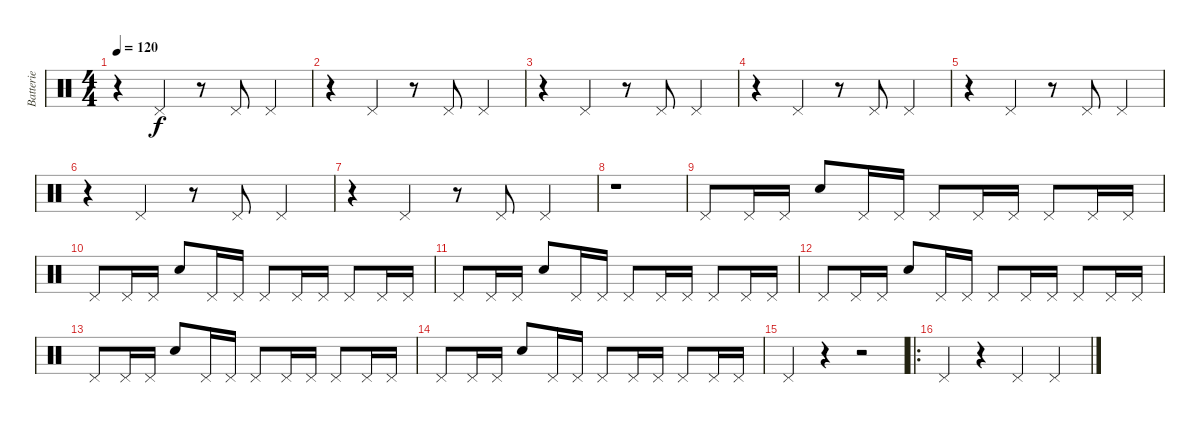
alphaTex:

\track ("Batterie" "Batterie") {instrument percussion}
\staff {score}
\articulation defaults
\ts (4 4)
\tempo 120
\clef neutral
\ks c
r.4{dy f} "Pedal Hi-Hat (hit)".4 r.8 "Pedal Hi-Hat (hit)".8 "Pedal Hi-Hat (hit)".4 |
r.4 "Pedal Hi-Hat (hit)".4 r.8 "Pedal Hi-Hat (hit)".8 "Pedal Hi-Hat (hit)".4 |
r.4 "Pedal Hi-Hat (hit)".4 r.8 "Pedal Hi-Hat (hit)".8 "Pedal Hi-Hat (hit)".4 |
r.4 "Pedal Hi-Hat (hit)".4 r.8 "Pedal Hi-Hat (hit)".8 "Pedal Hi-Hat (hit)".4 |
r.4 "Pedal Hi-Hat (hit)".4 r.8 "Pedal Hi-Hat (hit)".8 "Pedal Hi-Hat (hit)".4 |
r.4 "Pedal Hi-Hat (hit)".4 r.8 "Pedal Hi-Hat (hit)".8 "Pedal Hi-Hat (hit)".4 |
r.4 "Pedal Hi-Hat (hit)".4 r.8 "Pedal Hi-Hat (hit)".8 "Pedal Hi-Hat (hit)".4 |
r.1 |
"Pedal Hi-Hat (hit)".8 "Pedal Hi-Hat (hit)".16 "Pedal Hi-Hat (hit)".16 "Snare (hit)".8 "Pedal Hi-Hat (hit)".16 "Pedal Hi-Hat (hit)".16 "Pedal Hi-Hat (hit)".8 "Pedal Hi-Hat (hit)".16 "Pedal Hi-Hat (hit)".16 "Pedal Hi-Hat (hit)".8 "Pedal Hi-Hat (hit)".16 "Pedal Hi-Hat (hit)".16 |
"Pedal Hi-Hat (hit)".8 "Pedal Hi-Hat (hit)".16 "Pedal Hi-Hat (hit)".16 "Snare (hit)".8 "Pedal Hi-Hat (hit)".16 "Pedal Hi-Hat (hit)".16 "Pedal Hi-Hat (hit)".8 "Pedal Hi-Hat (hit)".16 "Pedal Hi-Hat (hit)".16 "Pedal Hi-Hat (hit)".8 "Pedal Hi-Hat (hit)".16 "Pedal Hi-Hat (hit)".16 |
"Pedal Hi-Hat (hit)".8 "Pedal Hi-Hat (hit)".16 "Pedal Hi-Hat (hit)".16 "Snare (hit)".8 "Pedal Hi-Hat (hit)".16 "Pedal Hi-Hat (hit)".16 "Pedal Hi-Hat (hit)".8 "Pedal Hi-Hat (hit)".16 "Pedal Hi-Hat (hit)".16 "Pedal Hi-Hat (hit)".8 "Pedal Hi-Hat (hit)".16 "Pedal Hi-Hat (hit)".16 |
"Pedal Hi-Hat (hit)".8 "Pedal Hi-Hat (hit)".16 "Pedal Hi-Hat (hit)".16 "Snare (hit)".8 "Pedal Hi-Hat (hit)".16 "Pedal Hi-Hat (hit)".16 "Pedal Hi-Hat (hit)".8 "Pedal Hi-Hat (hit)".16 "Pedal Hi-Hat (hit)".16 "Pedal Hi-Hat (hit)".8 "Pedal Hi-Hat (hit)".16 "Pedal Hi-Hat (hit)".16 |
"Pedal Hi-Hat (hit)".8 "Pedal Hi-Hat (hit)".16 "Pedal Hi-Hat (hit)".16 "Snare (hit)".8 "Pedal Hi-Hat (hit)".16 "Pedal Hi-Hat (hit)".16 "Pedal Hi-Hat (hit)".8 "Pedal Hi-Hat (hit)".16 "Pedal Hi-Hat (hit)".16 "Pedal Hi-Hat (hit)".8 "Pedal Hi-Hat (hit)".16 "Pedal Hi-Hat (hit)".16 |
"Pedal Hi-Hat (hit)".8 "Pedal Hi-Hat (hit)".16 "Pedal Hi-Hat (hit)".16 "Snare (hit)".8 "Pedal Hi-Hat (hit)".16 "Pedal Hi-Hat (hit)".16 "Pedal Hi-Hat (hit)".8 "Pedal Hi-Hat (hit)".16 "Pedal Hi-Hat (hit)".16 "Pedal Hi-Hat (hit)".8 "Pedal Hi-Hat (hit)".16 "Pedal Hi-Hat (hit)".16 |
"Pedal Hi-Hat (hit)".4 r.4 r.2 |
\ro "Pedal Hi-Hat (hit)".4
r.4 "Pedal Hi-Hat (hit)".4 "Pedal Hi-Hat (hit)".4
